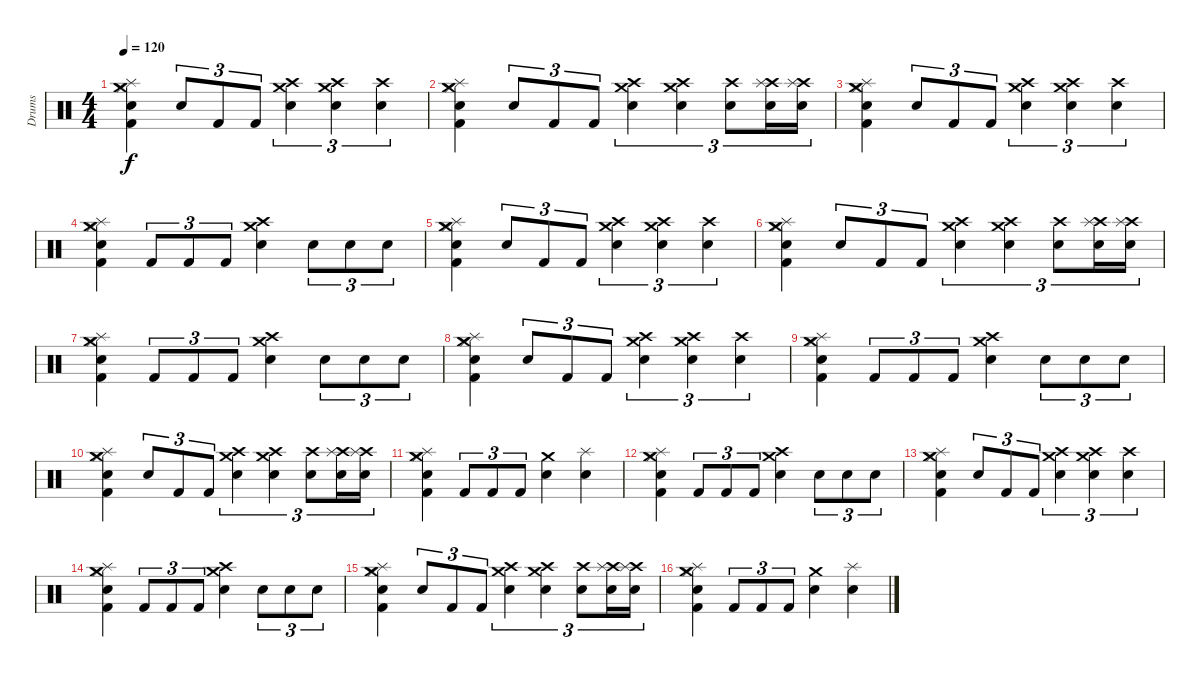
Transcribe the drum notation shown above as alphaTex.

\track ("Drums" "Drums") {instrument percussion}
\staff {score}
\articulation defaults
\ts (4 4)
\tempo 120
\clef neutral
\ks c
("Hi-Hat (closed)" "Snare (hit) 2" "Kick (hit) 2" "Splash (hit)" "Crash medium (hit)").4{dy f} "Snare (hit) 2".8{tu (3 2)} "Kick (hit) 2".8{tu (3 2)} "Kick (hit) 2".8{tu (3 2)} ("Snare (hit) 2" "Crash medium (hit)" "Crash high (hit)").4{tu (3 2)} ("Snare (hit) 2" "Crash medium (hit)" "Crash high (hit)").4{tu (3 2)} ("Snare (hit) 2" "Crash high (hit)").4{tu (3 2)} |
("Hi-Hat (closed)" "Snare (hit) 2" "Kick (hit) 2" "Splash (hit)" "Crash medium (hit)").4 "Snare (hit) 2".8{tu (3 2)} "Kick (hit) 2".8{tu (3 2)} "Kick (hit) 2".8{tu (3 2)} ("Snare (hit) 2" "Crash medium (hit)" "Crash high (hit)").4{tu (3 2)} ("Electric Snare (hit)" "Crash medium (hit)" "Crash high (hit)").4{tu (3 2)} ("Snare (hit) 2" "Crash high (hit)").8{tu (3 2)} ("Electric Snare (hit)" "Crash high (hit)" "Splash (hit)").16{tu (3 2)} ("Electric Snare (hit)" "Crash high (hit)" "Splash (hit)").16{tu (3 2)} |
("Hi-Hat (closed)" "Snare (hit) 2" "Kick (hit) 2" "Splash (hit)" "Crash medium (hit)").4 "Snare (hit) 2".8{tu (3 2)} "Kick (hit) 2".8{tu (3 2)} "Kick (hit) 2".8{tu (3 2)} ("Snare (hit) 2" "Crash medium (hit)" "Crash high (hit)").4{tu (3 2)} ("Snare (hit) 2" "Crash medium (hit)" "Crash high (hit)").4{tu (3 2)} ("Snare (hit) 2" "Crash high (hit)").4{tu (3 2)} |
("Hi-Hat (closed)" "Snare (hit) 2" "Kick (hit) 2" "Splash (hit)" "Crash medium (hit)").4 "Kick (hit) 2".8{tu (3 2)} "Kick (hit) 2".8{tu (3 2)} "Kick (hit) 2".8{tu (3 2)} ("Snare (hit) 2" "Crash medium (hit)" "Crash high (hit)").4 "Snare (hit) 2".8{tu (3 2)} "Snare (hit) 2".8{tu (3 2)} "Snare (hit) 2".8{tu (3 2)} |
("Hi-Hat (closed)" "Snare (hit) 2" "Kick (hit) 2" "Splash (hit)" "Crash medium (hit)").4 "Snare (hit) 2".8{tu (3 2)} "Kick (hit) 2".8{tu (3 2)} "Kick (hit) 2".8{tu (3 2)} ("Snare (hit) 2" "Crash medium (hit)" "Crash high (hit)").4{tu (3 2)} ("Snare (hit) 2" "Crash medium (hit)" "Crash high (hit)").4{tu (3 2)} ("Snare (hit) 2" "Crash high (hit)").4{tu (3 2)} |
("Hi-Hat (closed)" "Snare (hit) 2" "Kick (hit) 2" "Splash (hit)" "Crash medium (hit)").4 "Snare (hit) 2".8{tu (3 2)} "Kick (hit) 2".8{tu (3 2)} "Kick (hit) 2".8{tu (3 2)} ("Snare (hit) 2" "Crash medium (hit)" "Crash high (hit)").4{tu (3 2)} ("Electric Snare (hit)" "Crash medium (hit)" "Crash high (hit)").4{tu (3 2)} ("Snare (hit) 2" "Crash high (hit)").8{tu (3 2)} ("Electric Snare (hit)" "Crash high (hit)" "Splash (hit)").16{tu (3 2)} ("Electric Snare (hit)" "Crash high (hit)" "Splash (hit)").16{tu (3 2)} |
("Hi-Hat (closed)" "Snare (hit) 2" "Kick (hit) 2" "Splash (hit)" "Crash medium (hit)").4 "Kick (hit) 2".8{tu (3 2)} "Kick (hit) 2".8{tu (3 2)} "Kick (hit) 2".8{tu (3 2)} ("Snare (hit) 2" "Crash medium (hit)" "Crash high (hit)").4 "Snare (hit) 2".8{tu (3 2)} "Snare (hit) 2".8{tu (3 2)} "Snare (hit) 2".8{tu (3 2)} |
("Hi-Hat (closed)" "Snare (hit) 2" "Kick (hit) 2" "Splash (hit)" "Crash medium (hit)").4 "Snare (hit) 2".8{tu (3 2)} "Kick (hit) 2".8{tu (3 2)} "Kick (hit) 2".8{tu (3 2)} ("Snare (hit) 2" "Crash medium (hit)" "Crash high (hit)").4{tu (3 2)} ("Snare (hit) 2" "Crash medium (hit)" "Crash high (hit)").4{tu (3 2)} ("Snare (hit) 2" "Crash high (hit)").4{tu (3 2)} |
("Hi-Hat (closed)" "Snare (hit) 2" "Kick (hit) 2" "Splash (hit)" "Crash medium (hit)").4 "Kick (hit) 2".8{tu (3 2)} "Kick (hit) 2".8{tu (3 2)} "Kick (hit) 2".8{tu (3 2)} ("Snare (hit) 2" "Crash medium (hit)" "Crash high (hit)").4 "Snare (hit) 2".8{tu (3 2)} "Snare (hit) 2".8{tu (3 2)} "Snare (hit) 2".8{tu (3 2)} |
("Hi-Hat (closed)" "Snare (hit) 2" "Kick (hit) 2" "Splash (hit)" "Crash medium (hit)").4 "Snare (hit) 2".8{tu (3 2)} "Kick (hit) 2".8{tu (3 2)} "Kick (hit) 2".8{tu (3 2)} ("Snare (hit) 2" "Crash medium (hit)" "Crash high (hit)").4{tu (3 2)} ("Electric Snare (hit)" "Crash medium (hit)" "Crash high (hit)").4{tu (3 2)} ("Snare (hit) 2" "Crash high (hit)").8{tu (3 2)} ("Electric Snare (hit)" "Crash high (hit)" "Splash (hit)").16{tu (3 2)} ("Electric Snare (hit)" "Crash high (hit)" "Splash (hit)").16{tu (3 2)} |
("Hi-Hat (closed)" "Snare (hit) 2" "Kick (hit) 2" "Splash (hit)" "Crash medium (hit)").4 "Kick (hit) 2".8{tu (3 2)} "Kick (hit) 2".8{tu (3 2)} "Kick (hit) 2".8{tu (3 2)} ("Snare (hit) 2" "Crash medium (hit)").4 ("Snare (hit) 2" "Splash (hit)").4 |
("Hi-Hat (closed)" "Snare (hit) 2" "Kick (hit) 2" "Splash (hit)" "Crash medium (hit)").4 "Kick (hit) 2".8{tu (3 2)} "Kick (hit) 2".8{tu (3 2)} "Kick (hit) 2".8{tu (3 2)} ("Snare (hit) 2" "Crash medium (hit)" "Crash high (hit)").4 "Snare (hit) 2".8{tu (3 2)} "Snare (hit) 2".8{tu (3 2)} "Snare (hit) 2".8{tu (3 2)} |
("Hi-Hat (closed)" "Snare (hit) 2" "Kick (hit) 2" "Splash (hit)" "Crash medium (hit)").4 "Snare (hit) 2".8{tu (3 2)} "Kick (hit) 2".8{tu (3 2)} "Kick (hit) 2".8{tu (3 2)} ("Snare (hit) 2" "Crash medium (hit)" "Crash high (hit)").4{tu (3 2)} ("Snare (hit) 2" "Crash medium (hit)" "Crash high (hit)").4{tu (3 2)} ("Snare (hit) 2" "Crash high (hit)").4{tu (3 2)} |
("Hi-Hat (closed)" "Snare (hit) 2" "Kick (hit) 2" "Splash (hit)" "Crash medium (hit)").4 "Kick (hit) 2".8{tu (3 2)} "Kick (hit) 2".8{tu (3 2)} "Kick (hit) 2".8{tu (3 2)} ("Snare (hit) 2" "Crash medium (hit)" "Crash high (hit)").4 "Snare (hit) 2".8{tu (3 2)} "Snare (hit) 2".8{tu (3 2)} "Snare (hit) 2".8{tu (3 2)} |
("Hi-Hat (closed)" "Snare (hit) 2" "Kick (hit) 2" "Splash (hit)" "Crash medium (hit)").4 "Snare (hit) 2".8{tu (3 2)} "Kick (hit) 2".8{tu (3 2)} "Kick (hit) 2".8{tu (3 2)} ("Snare (hit) 2" "Crash medium (hit)" "Crash high (hit)").4{tu (3 2)} ("Electric Snare (hit)" "Crash medium (hit)" "Crash high (hit)").4{tu (3 2)} ("Snare (hit) 2" "Crash high (hit)").8{tu (3 2)} ("Electric Snare (hit)" "Crash high (hit)" "Splash (hit)").16{tu (3 2)} ("Electric Snare (hit)" "Crash high (hit)" "Splash (hit)").16{tu (3 2)} |
("Hi-Hat (closed)" "Snare (hit) 2" "Kick (hit) 2" "Splash (hit)" "Crash medium (hit)").4 "Kick (hit) 2".8{tu (3 2)} "Kick (hit) 2".8{tu (3 2)} "Kick (hit) 2".8{tu (3 2)} ("Snare (hit) 2" "Crash medium (hit)").4 ("Snare (hit) 2" "Splash (hit)").4
